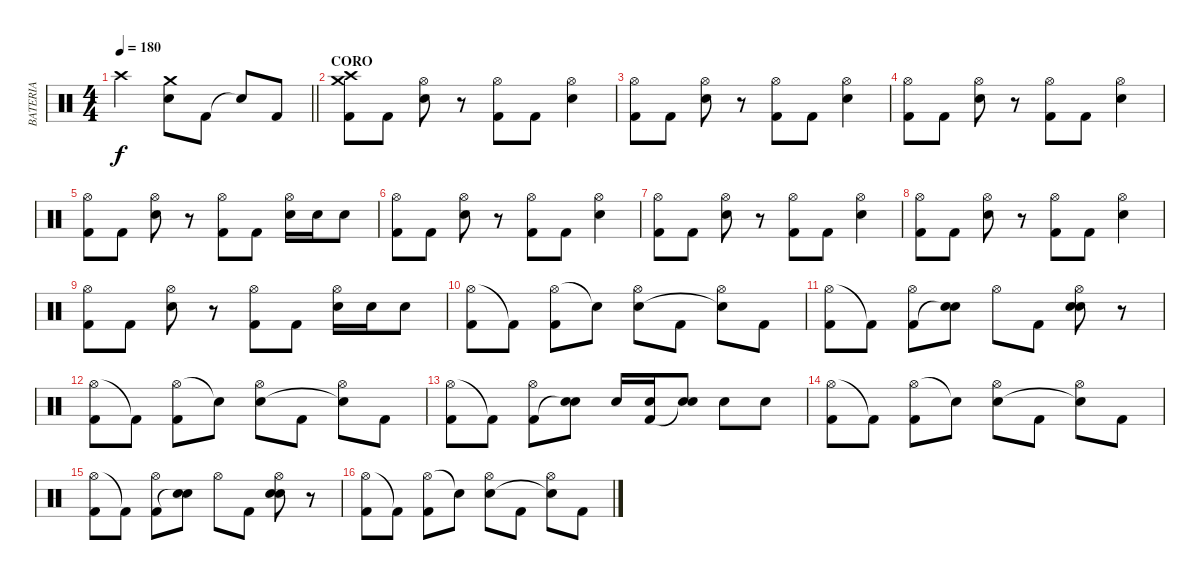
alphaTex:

\track ("BATERIA" "BATERIA") {instrument percussion}
\staff {score}
\articulation defaults
\ts (4 4)
\tempo 180
\clef neutral
\barLineRight lightlight
\ks c "Crash high (hit)".2{dy f}
("Crash medium (hit)" "Electric Snare (hit)").8 "Kick (hit) 2".8 "Snare (hit)"{t}.8 "Kick (hit) 2".8 |
\section ("" "CORO")
("Crash high (hit)" "Crash medium (hit)" "Kick (hit) 2").8 "Kick (hit) 2".8 ("Hi-Hat (open)" "Electric Snare (hit)").8 r.8 ("Hi-Hat (open)" "Kick (hit) 2").8 "Kick (hit) 2".8 ("Hi-Hat (open)" "Electric Snare (hit)").4 |
("Hi-Hat (open)" "Kick (hit) 2").8 "Kick (hit) 2".8 ("Hi-Hat (open)" "Electric Snare (hit)").8 r.8 ("Hi-Hat (open)" "Kick (hit) 2").8 "Kick (hit) 2".8 ("Hi-Hat (open)" "Electric Snare (hit)").4 |
("Hi-Hat (open)" "Kick (hit) 2").8 "Kick (hit) 2".8 ("Hi-Hat (open)" "Electric Snare (hit)").8 r.8 ("Hi-Hat (open)" "Kick (hit) 2").8 "Kick (hit) 2".8 ("Hi-Hat (open)" "Electric Snare (hit)").4 |
("Hi-Hat (open)" "Kick (hit) 2").8 "Kick (hit) 2".8 ("Hi-Hat (open)" "Electric Snare (hit)").8 r.8 ("Hi-Hat (open)" "Kick (hit) 2").8 "Kick (hit) 2".8 ("Hi-Hat (open)" "Electric Snare (hit)").16 "Electric Snare (hit)".16 "Electric Snare (hit)".8 |
("Hi-Hat (open)" "Kick (hit) 2").8 "Kick (hit) 2".8 ("Hi-Hat (open)" "Electric Snare (hit)").8 r.8 ("Hi-Hat (open)" "Kick (hit) 2").8 "Kick (hit) 2".8 ("Hi-Hat (open)" "Electric Snare (hit)").4 |
("Hi-Hat (open)" "Kick (hit) 2").8 "Kick (hit) 2".8 ("Hi-Hat (open)" "Electric Snare (hit)").8 r.8 ("Hi-Hat (open)" "Kick (hit) 2").8 "Kick (hit) 2".8 ("Hi-Hat (open)" "Electric Snare (hit)").4 |
("Hi-Hat (open)" "Kick (hit) 2").8 "Kick (hit) 2".8 ("Hi-Hat (open)" "Electric Snare (hit)").8 r.8 ("Hi-Hat (open)" "Kick (hit) 2").8 "Kick (hit) 2".8 ("Hi-Hat (open)" "Electric Snare (hit)").4 |
("Hi-Hat (open)" "Kick (hit) 2").8 "Kick (hit) 2".8 ("Hi-Hat (open)" "Electric Snare (hit)").8 r.8 ("Hi-Hat (open)" "Kick (hit) 2").8 "Kick (hit) 2".8 ("Hi-Hat (open)" "Electric Snare (hit)").16 "Electric Snare (hit)".16 "Electric Snare (hit)".8 |
("Hi-Hat (open)" "Kick (hit) 2").8 "Kick (hit) 2"{t}.8 ("Hi-Hat (open)" "Kick (hit) 2").8 "Snare (hit)"{t}.8 ("Hi-Hat (open)" "Electric Snare (hit)").8 "Kick (hit) 2".8 ("Hi-Hat (open)" "Snare (hit)"{t}).8 "Kick (hit) 2".8 |
("Hi-Hat (open)" "Kick (hit) 2").8 "Kick (hit) 2"{t}.8 ("Hi-Hat (open)" "Kick (hit) 2").8 ("Electric Snare (hit)" "Snare (hit)"{t}).8 "Hi-Hat (open)".8 "Kick (hit) 2".8 ("Hi-Hat (open)" "Electric Snare (hit)" "Snare (hit)").8 r.8 |
("Hi-Hat (open)" "Kick (hit) 2").8 "Kick (hit) 2"{t}.8 ("Hi-Hat (open)" "Kick (hit) 2").8 "Snare (hit)"{t}.8 ("Hi-Hat (open)" "Electric Snare (hit)").8 "Kick (hit) 2".8 ("Hi-Hat (open)" "Snare (hit)"{t}).8 "Kick (hit) 2".8 |
("Hi-Hat (open)" "Kick (hit) 2").8 "Kick (hit) 2"{t}.8 ("Hi-Hat (open)" "Kick (hit) 2").8 ("Electric Snare (hit)" "Snare (hit)"{t}).8 "Electric Snare (hit)".16 ("Electric Snare (hit)" "Kick (hit) 2").16 ("Electric Snare (hit)" "Snare (hit)"{t}).8 "Electric Snare (hit)".8 "Electric Snare (hit)".8 |
("Hi-Hat (open)" "Kick (hit) 2").8 "Kick (hit) 2"{t}.8 ("Hi-Hat (open)" "Kick (hit) 2").8 "Snare (hit)"{t}.8 ("Hi-Hat (open)" "Electric Snare (hit)").8 "Kick (hit) 2".8 ("Hi-Hat (open)" "Snare (hit)"{t}).8 "Kick (hit) 2".8 |
("Hi-Hat (open)" "Kick (hit) 2").8 "Kick (hit) 2"{t}.8 ("Hi-Hat (open)" "Kick (hit) 2").8 ("Electric Snare (hit)" "Snare (hit)"{t}).8 "Hi-Hat (open)".8 "Kick (hit) 2".8 ("Hi-Hat (open)" "Electric Snare (hit)" "Snare (hit)").8 r.8 |
("Hi-Hat (open)" "Kick (hit) 2").8 "Kick (hit) 2"{t}.8 ("Hi-Hat (open)" "Kick (hit) 2").8 "Snare (hit)"{t}.8 ("Hi-Hat (open)" "Electric Snare (hit)").8 "Kick (hit) 2".8 ("Hi-Hat (open)" "Snare (hit)"{t}).8 "Kick (hit) 2".8
